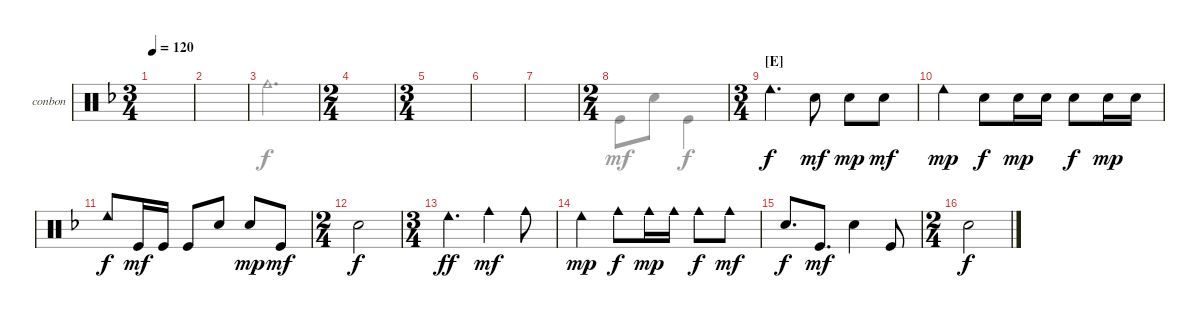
\defaultSystemsLayout 4
\bracketExtendMode groupsimilarinstruments
\firstSystemTrackNameOrientation horizontal
\otherSystemsTrackNameOrientation horizontal
\track ("Bongos N Congas" "conbon") {instrument percussion}
\staff {score}
\articulation defaults
\voice
\ts (3 4)
\tempo 120
\clef neutral
\scale
0.4
\ks f
|
\scale
0.2 |
\scale
0.2 |
\ts (2 4)
\scale
0.4 |
\ts (3 4)
\scale
0.4 |
|
|
\ts (2 4)
|
\ts (3 4)
\section ("E" "")
"Cowbell low (hit)".4{d} "Snare (hit) 2".8{dy mf} "Snare (hit) 2".8{dy mp} "Snare (hit) 2".8{dy mf} |
"Cowbell low (hit)".4{dy mp} "Snare (hit) 2".8{dy f} "Snare (hit) 2".16{dy mp} "Snare (hit) 2".16 "Snare (hit) 2".8{dy f} "Snare (hit) 2".16{dy mp} "Snare (hit) 2".16 |
"Cowbell low (hit)".8{dy f} "Kick (hit)".16{dy mf} "Kick (hit)".16 "Kick (hit)".8 "Snare (hit) 2".8 "Snare (hit) 2".8{dy mp} "Kick (hit)".8{dy mf} |
\ts (2 4)
"Snare (hit) 2".2{dy f} |
\ts (3 4)
"Cowbell low (hit)".4{d dy ff} "Cowbell medium (hit)".4{dy mf} "Cowbell medium (hit)".8 |
"Cowbell low (hit)".4{dy mp} "Cowbell medium (hit)".8{dy f} "Cowbell medium (hit)".16{dy mp} "Cowbell medium (hit)".16 "Cowbell medium (hit)".8{dy f} "Cowbell medium (hit)".8{dy mf} |
"Snare (hit) 2".8{d dy f} "Kick (hit)".8{d dy mf} "Snare (hit) 2".4 "Kick (hit)".8 |
\ts (2 4)
"Snare (hit) 2".2{dy f}
\voice
\clef neutral
\ottava regular
\simile none
\scale
0.4
\ks f
|
\scale
0.2 |
\scale
0.2 "Cowbell medium (hit)".2{d} |
\scale
0.4 |
\scale
0.4 |
|
|
"Kick (hit)".8{dy mf} "Snare (hit) 2".8 "Kick (hit)".4{dy f} |
|
|
|
|
|
|
|
